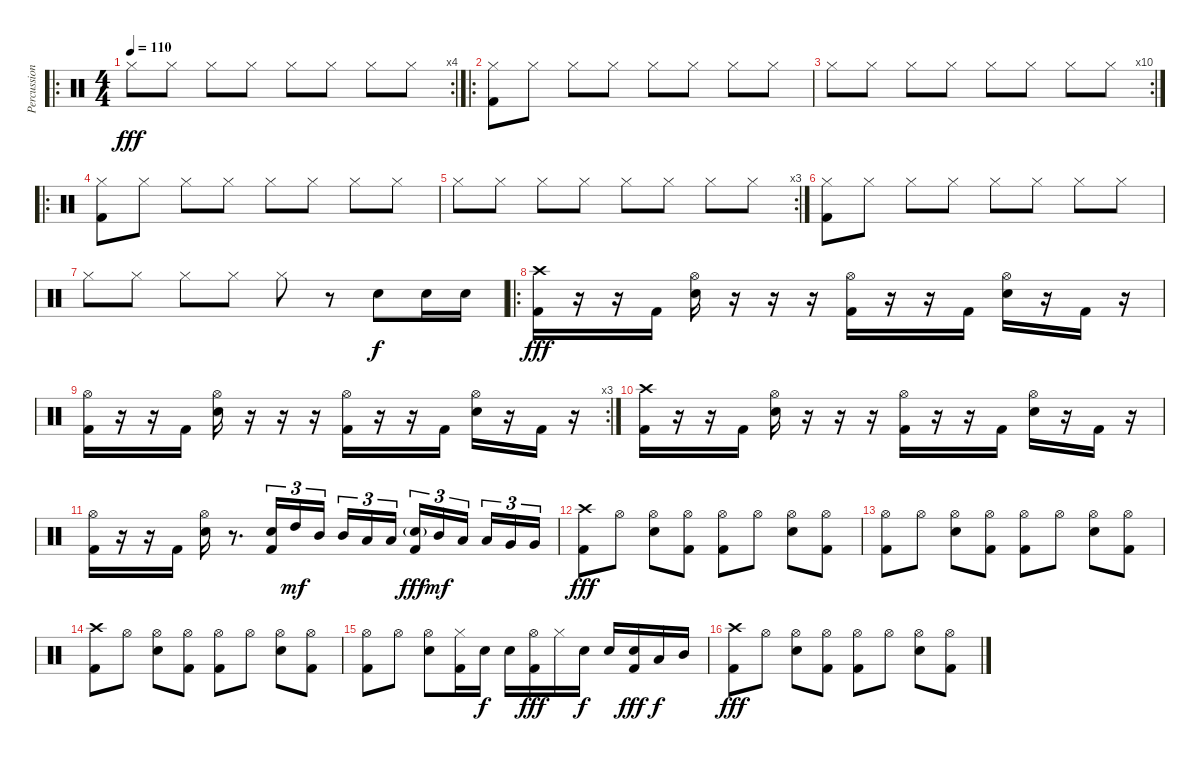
\track ("Percussion" "Percussion") {instrument percussion}
\staff {score}
\articulation defaults
\ro
\rc 4
\ts (4 4)
\tempo 110
\clef neutral
\ks c "Hi-Hat (closed)".8{dy fff} "Hi-Hat (closed)".8 "Hi-Hat (closed)".8 "Hi-Hat (closed)".8 "Hi-Hat (closed)".8 "Hi-Hat (closed)".8 "Hi-Hat (closed)".8 "Hi-Hat (closed)".8
|
\ro
("Hi-Hat (closed)" "Kick (hit) 2").8 "Hi-Hat (closed)".8 "Hi-Hat (closed)".8 "Hi-Hat (closed)".8 "Hi-Hat (closed)".8 "Hi-Hat (closed)".8 "Hi-Hat (closed)".8 "Hi-Hat (closed)".8 |
\rc 10 "Hi-Hat (closed)".8 "Hi-Hat (closed)".8 "Hi-Hat (closed)".8 "Hi-Hat (closed)".8 "Hi-Hat (closed)".8 "Hi-Hat (closed)".8 "Hi-Hat (closed)".8 "Hi-Hat (closed)".8
|
\ro
("Hi-Hat (closed)" "Kick (hit) 2").8 "Hi-Hat (closed)".8 "Hi-Hat (closed)".8 "Hi-Hat (closed)".8 "Hi-Hat (closed)".8 "Hi-Hat (closed)".8 "Hi-Hat (closed)".8 "Hi-Hat (closed)".8 |
\rc 3 "Hi-Hat (closed)".8 "Hi-Hat (closed)".8 "Hi-Hat (closed)".8 "Hi-Hat (closed)".8 "Hi-Hat (closed)".8 "Hi-Hat (closed)".8 "Hi-Hat (closed)".8 "Hi-Hat (closed)".8
|
("Hi-Hat (closed)" "Kick (hit) 2").8 "Hi-Hat (closed)".8 "Hi-Hat (closed)".8 "Hi-Hat (closed)".8 "Hi-Hat (closed)".8 "Hi-Hat (closed)".8 "Hi-Hat (closed)".8 "Hi-Hat (closed)".8 |
"Hi-Hat (closed)".8 "Hi-Hat (closed)".8 "Hi-Hat (closed)".8 "Hi-Hat (closed)".8 "Hi-Hat (closed)".8 r.8 "Electric Snare (hit)".8{dy f} "Electric Snare (hit)".16 "Electric Snare (hit)".16 |
\ro
("Crash high (hit)" "Kick (hit) 2").16{dy fff} r.16 r.16 "Kick (hit) 2".16 ("Hi-Hat (open)" "Electric Snare (hit)").16 r.16 r.16 r.16 ("Hi-Hat (open)" "Kick (hit) 2").16 r.16 r.16 "Kick (hit) 2".16 ("Hi-Hat (open)" "Electric Snare (hit)").16 r.16 "Kick (hit) 2".16 r.16 |
\rc 3
("Hi-Hat (open)" "Kick (hit) 2").16 r.16 r.16 "Kick (hit) 2".16 ("Hi-Hat (open)" "Electric Snare (hit)").16 r.16 r.16 r.16 ("Hi-Hat (open)" "Kick (hit) 2").16 r.16 r.16 "Kick (hit) 2".16 ("Hi-Hat (open)" "Electric Snare (hit)").16 r.16 "Kick (hit) 2".16 r.16 |
("Crash high (hit)" "Kick (hit) 2").16 r.16 r.16 "Kick (hit) 2".16 ("Hi-Hat (open)" "Electric Snare (hit)").16 r.16 r.16 r.16 ("Hi-Hat (open)" "Kick (hit) 2").16 r.16 r.16 "Kick (hit) 2".16 ("Hi-Hat (open)" "Electric Snare (hit)").16 r.16 "Kick (hit) 2".16 r.16 |
("Hi-Hat (open)" "Kick (hit) 2").16 r.16 r.16 "Kick (hit) 2".16 ("Hi-Hat (open)" "Electric Snare (hit)").16 r.8{d} ("Electric Snare (hit)" "Kick (hit) 2").16{tu (3 2)} "High Tom (hit)".16{tu (3 2) dy mf} "Mid Tom (hit)".16{tu (3 2)} "Mid Tom (hit)".16{tu (3 2)} "Low Tom (hit)".16{tu (3 2)} "Low Tom (hit)".16{tu (3 2)} ("Electric Snare (hit)"{g} "Kick (hit) 2").16{tu (3 2) dy fff} "Mid Tom (hit)".16{tu (3 2) dy mf} "Low Tom (hit)".16{tu (3 2)} "Low Tom (hit)".16{tu (3 2)} "Very Low Tom (hit)".16{tu (3 2)} "Very Low Tom (hit)".16{tu (3 2)} |
("Crash high (hit)" "Kick (hit) 2").8{dy fff} "Hi-Hat (open)".8 ("Hi-Hat (open)" "Electric Snare (hit)").8 ("Hi-Hat (open)" "Kick (hit) 2").8 ("Hi-Hat (open)" "Kick (hit) 2").8 "Hi-Hat (open)".8 ("Hi-Hat (open)" "Electric Snare (hit)").8 ("Hi-Hat (open)" "Kick (hit) 2").8 |
("Hi-Hat (open)" "Kick (hit) 2").8 "Hi-Hat (open)".8 ("Hi-Hat (open)" "Electric Snare (hit)").8 ("Hi-Hat (open)" "Kick (hit) 2").8 ("Hi-Hat (open)" "Kick (hit) 2").8 "Hi-Hat (open)".8 ("Hi-Hat (open)" "Electric Snare (hit)").8 ("Hi-Hat (open)" "Kick (hit) 2").8 |
("Crash high (hit)" "Kick (hit) 2").8 "Hi-Hat (open)".8 ("Hi-Hat (open)" "Electric Snare (hit)").8 ("Hi-Hat (open)" "Kick (hit) 2").8 ("Hi-Hat (open)" "Kick (hit) 2").8 "Hi-Hat (open)".8 ("Hi-Hat (open)" "Electric Snare (hit)").8 ("Hi-Hat (open)" "Kick (hit) 2").8 |
("Hi-Hat (open)" "Kick (hit) 2").8 "Hi-Hat (open)".8 ("Hi-Hat (open)" "Electric Snare (hit)").8 ("Hi-Hat (closed)" "Kick (hit) 2").16 "Electric Snare (hit)".16{dy f} "Electric Snare (hit)".16 ("Hi-Hat (open)" "Kick (hit) 2").16{dy fff} "Hi-Hat (closed)".16 "Electric Snare (hit)".16{dy f} "Electric Snare (hit)".16 ("Electric Snare (hit)" "Kick (hit) 2").16{dy fff} "Low Tom (hit)".16{dy f} "Mid Tom (hit)".16 |
("Crash high (hit)" "Kick (hit) 2").8{dy fff} "Hi-Hat (open)".8 ("Hi-Hat (open)" "Electric Snare (hit)").8 ("Hi-Hat (open)" "Kick (hit) 2").8 ("Hi-Hat (open)" "Kick (hit) 2").8 "Hi-Hat (open)".8 ("Hi-Hat (open)" "Electric Snare (hit)").8 ("Hi-Hat (open)" "Kick (hit) 2").8
